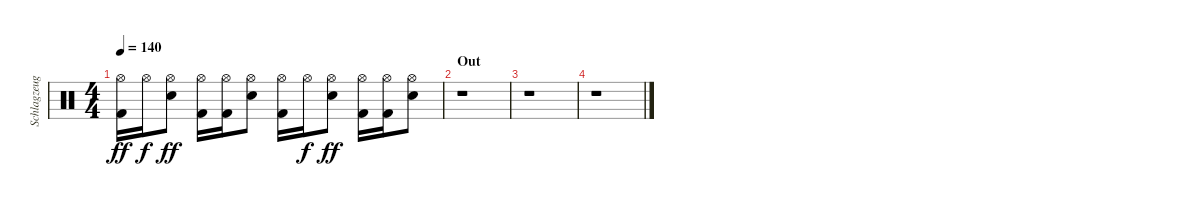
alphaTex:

\track ("Schlagzeug - Bela B." "Schlagzeug") {instrument percussion}
\staff {score}
\articulation defaults
\ts (4 4)
\tempo 140
\clef neutral
\ks c
("Hi-Hat (open)" "Kick (hit) 2").16{dy ff} "Hi-Hat (open)".16{dy f} ("Hi-Hat (open)" "Electric Snare (hit)").8{dy ff} ("Hi-Hat (open)" "Kick (hit) 2").16 ("Hi-Hat (open)" "Kick (hit) 2").16 ("Hi-Hat (open)" "Electric Snare (hit)").8 ("Hi-Hat (open)" "Kick (hit) 2").16 "Hi-Hat (open)".16{dy f} ("Hi-Hat (open)" "Electric Snare (hit)").8{dy ff} ("Hi-Hat (open)" "Kick (hit) 2").16 ("Hi-Hat (open)" "Kick (hit) 2").16 ("Hi-Hat (open)" "Electric Snare (hit)").8 |
\section ("" "Out")
r.1 |
r.1 |
r.1
